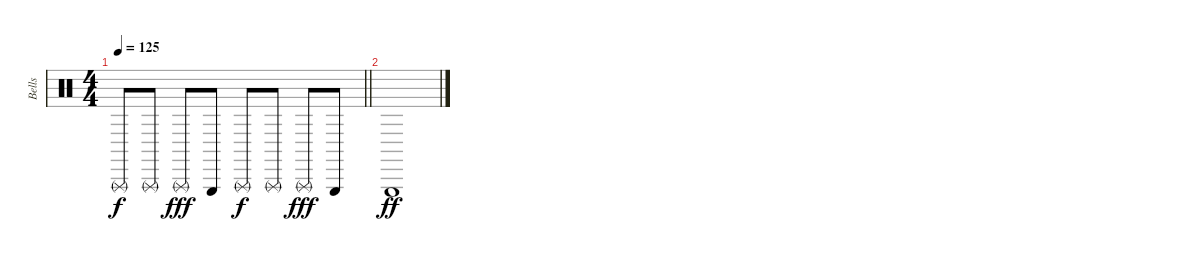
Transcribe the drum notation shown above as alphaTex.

\track ("Bells" "Bells") {instrument percussion}
\staff
\articulation defaults
\ts (4 4)
\tempo 125
\clef neutral
\barLineRight lightlight
\ks c "Triangle (rnute)".8{dy f} "Triangle (rnute)".8 "Triangle (rnute)".8{dy fff} "Triangle (hit)".8 "Triangle (rnute)".8{dy f} "Triangle (rnute)".8 "Triangle (rnute)".8{dy fff} "Triangle (hit)".8
|
"Triangle (hit)".1{dy ff}
